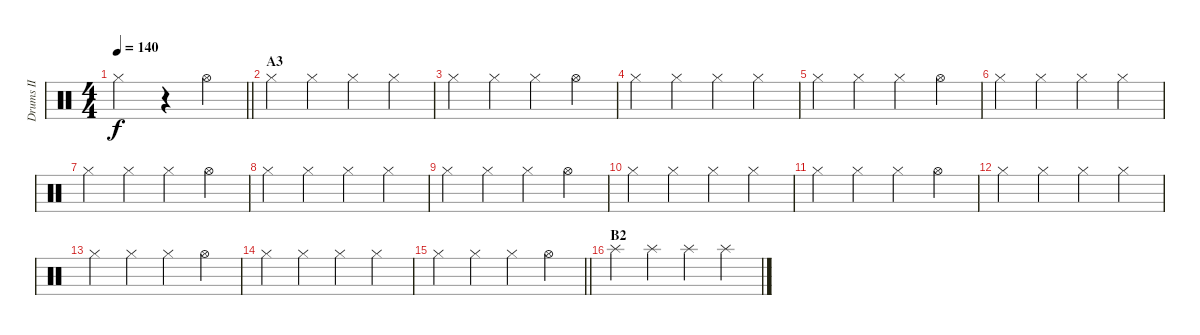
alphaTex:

\track ("Drums II" "Drums II") {instrument percussion}
\staff {score}
\articulation defaults
\ts (4 4)
\tempo 140
\clef neutral
\barLineRight lightlight
\ks c "Hi-Hat (closed)".2{dy f}
r.4 "Hi-Hat (open)".4 |
\section ("" "A3")
"Hi-Hat (closed)".4 "Hi-Hat (closed)".4 "Hi-Hat (closed)".4 "Hi-Hat (closed)".4 |
"Hi-Hat (closed)".4 "Hi-Hat (closed)".4 "Hi-Hat (closed)".4 "Hi-Hat (open)".4 |
"Hi-Hat (closed)".4 "Hi-Hat (closed)".4 "Hi-Hat (closed)".4 "Hi-Hat (closed)".4 |
"Hi-Hat (closed)".4 "Hi-Hat (closed)".4 "Hi-Hat (closed)".4 "Hi-Hat (open)".4 |
"Hi-Hat (closed)".4 "Hi-Hat (closed)".4 "Hi-Hat (closed)".4 "Hi-Hat (closed)".4 |
"Hi-Hat (closed)".4 "Hi-Hat (closed)".4 "Hi-Hat (closed)".4 "Hi-Hat (open)".4 |
"Hi-Hat (closed)".4 "Hi-Hat (closed)".4 "Hi-Hat (closed)".4 "Hi-Hat (closed)".4 |
"Hi-Hat (closed)".4 "Hi-Hat (closed)".4 "Hi-Hat (closed)".4 "Hi-Hat (open)".4 |
"Hi-Hat (closed)".4 "Hi-Hat (closed)".4 "Hi-Hat (closed)".4 "Hi-Hat (closed)".4 |
"Hi-Hat (closed)".4 "Hi-Hat (closed)".4 "Hi-Hat (closed)".4 "Hi-Hat (open)".4 |
"Hi-Hat (closed)".4 "Hi-Hat (closed)".4 "Hi-Hat (closed)".4 "Hi-Hat (closed)".4 |
"Hi-Hat (closed)".4 "Hi-Hat (closed)".4 "Hi-Hat (closed)".4 "Hi-Hat (open)".4 |
"Hi-Hat (closed)".4 "Hi-Hat (closed)".4 "Hi-Hat (closed)".4 "Hi-Hat (closed)".4 |
\barLineRight lightlight "Hi-Hat (closed)".4 "Hi-Hat (closed)".4 "Hi-Hat (closed)".4 "Hi-Hat (open)".4
|
\section ("" "B2")
"Splash (hit)".4 "Splash (hit)".4 "Splash (hit)".4 "Splash (hit)".4
